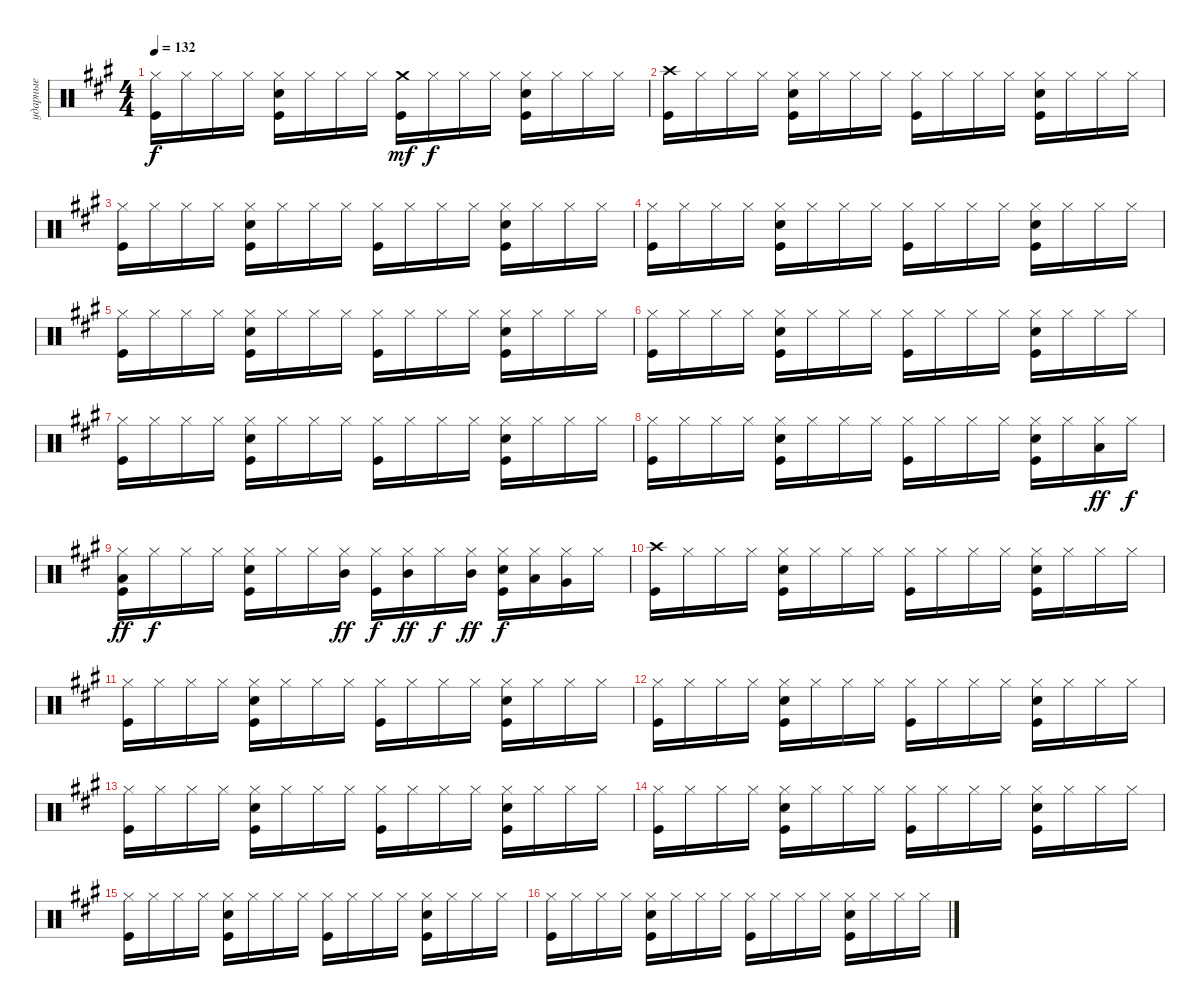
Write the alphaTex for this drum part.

\track ("ударные" "ударные") {instrument percussion}
\staff {score}
\articulation defaults
\ts (4 4)
\tempo 132
\clef neutral
\ks f#minor
("Hi-Hat (closed)" "Kick (hit)").16{dy f} "Hi-Hat (closed)".16 "Hi-Hat (closed)".16 "Hi-Hat (closed)".16 ("Hi-Hat (closed)" "Snare (hit) 2" "Kick (hit)").16 "Hi-Hat (closed)".16 "Hi-Hat (closed)".16 "Hi-Hat (closed)".16 ("Crash medium (hit)" "Kick (hit)").16{dy mf} "Hi-Hat (closed)".16{dy f} "Hi-Hat (closed)".16 "Hi-Hat (closed)".16 ("Hi-Hat (closed)" "Snare (hit) 2" "Kick (hit)").16 "Hi-Hat (closed)".16 "Hi-Hat (closed)".16 "Hi-Hat (closed)".16 |
("Kick (hit)" "Crash high (hit)").16 "Hi-Hat (closed)".16 "Hi-Hat (closed)".16 "Hi-Hat (closed)".16 ("Hi-Hat (closed)" "Snare (hit) 2" "Kick (hit)").16 "Hi-Hat (closed)".16 "Hi-Hat (closed)".16 "Hi-Hat (closed)".16 ("Hi-Hat (closed)" "Kick (hit)").16 "Hi-Hat (closed)".16 "Hi-Hat (closed)".16 "Hi-Hat (closed)".16 ("Hi-Hat (closed)" "Snare (hit) 2" "Kick (hit)").16 "Hi-Hat (closed)".16 "Hi-Hat (closed)".16 "Hi-Hat (closed)".16 |
("Hi-Hat (closed)" "Kick (hit)").16 "Hi-Hat (closed)".16 "Hi-Hat (closed)".16 "Hi-Hat (closed)".16 ("Hi-Hat (closed)" "Snare (hit) 2" "Kick (hit)").16 "Hi-Hat (closed)".16 "Hi-Hat (closed)".16 "Hi-Hat (closed)".16 ("Hi-Hat (closed)" "Kick (hit)").16 "Hi-Hat (closed)".16 "Hi-Hat (closed)".16 "Hi-Hat (closed)".16 ("Hi-Hat (closed)" "Snare (hit) 2" "Kick (hit)").16 "Hi-Hat (closed)".16 "Hi-Hat (closed)".16 "Hi-Hat (closed)".16 |
("Hi-Hat (closed)" "Kick (hit)").16 "Hi-Hat (closed)".16 "Hi-Hat (closed)".16 "Hi-Hat (closed)".16 ("Hi-Hat (closed)" "Snare (hit) 2" "Kick (hit)").16 "Hi-Hat (closed)".16 "Hi-Hat (closed)".16 "Hi-Hat (closed)".16 ("Hi-Hat (closed)" "Kick (hit)").16 "Hi-Hat (closed)".16 "Hi-Hat (closed)".16 "Hi-Hat (closed)".16 ("Hi-Hat (closed)" "Snare (hit) 2" "Kick (hit)").16 "Hi-Hat (closed)".16 "Hi-Hat (closed)".16 "Hi-Hat (closed)".16 |
("Hi-Hat (closed)" "Kick (hit)").16 "Hi-Hat (closed)".16 "Hi-Hat (closed)".16 "Hi-Hat (closed)".16 ("Hi-Hat (closed)" "Snare (hit) 2" "Kick (hit)").16 "Hi-Hat (closed)".16 "Hi-Hat (closed)".16 "Hi-Hat (closed)".16 ("Hi-Hat (closed)" "Kick (hit)").16 "Hi-Hat (closed)".16 "Hi-Hat (closed)".16 "Hi-Hat (closed)".16 ("Hi-Hat (closed)" "Snare (hit) 2" "Kick (hit)").16 "Hi-Hat (closed)".16 "Hi-Hat (closed)".16 "Hi-Hat (closed)".16 |
("Hi-Hat (closed)" "Kick (hit)").16 "Hi-Hat (closed)".16 "Hi-Hat (closed)".16 "Hi-Hat (closed)".16 ("Hi-Hat (closed)" "Snare (hit) 2" "Kick (hit)").16 "Hi-Hat (closed)".16 "Hi-Hat (closed)".16 "Hi-Hat (closed)".16 ("Hi-Hat (closed)" "Kick (hit)").16 "Hi-Hat (closed)".16 "Hi-Hat (closed)".16 "Hi-Hat (closed)".16 ("Hi-Hat (closed)" "Snare (hit) 2" "Kick (hit)").16 "Hi-Hat (closed)".16 "Hi-Hat (closed)".16 "Hi-Hat (closed)".16 |
("Hi-Hat (closed)" "Kick (hit)").16 "Hi-Hat (closed)".16 "Hi-Hat (closed)".16 "Hi-Hat (closed)".16 ("Hi-Hat (closed)" "Snare (hit) 2" "Kick (hit)").16 "Hi-Hat (closed)".16 "Hi-Hat (closed)".16 "Hi-Hat (closed)".16 ("Hi-Hat (closed)" "Kick (hit)").16 "Hi-Hat (closed)".16 "Hi-Hat (closed)".16 "Hi-Hat (closed)".16 ("Hi-Hat (closed)" "Snare (hit) 2" "Kick (hit)").16 "Hi-Hat (closed)".16 "Hi-Hat (closed)".16 "Hi-Hat (closed)".16 |
("Hi-Hat (closed)" "Kick (hit)").16 "Hi-Hat (closed)".16 "Hi-Hat (closed)".16 "Hi-Hat (closed)".16 ("Hi-Hat (closed)" "Snare (hit) 2" "Kick (hit)").16 "Hi-Hat (closed)".16 "Hi-Hat (closed)".16 "Hi-Hat (closed)".16 ("Hi-Hat (closed)" "Kick (hit)").16 "Hi-Hat (closed)".16 "Hi-Hat (closed)".16 "Hi-Hat (closed)".16 ("Hi-Hat (closed)" "Snare (hit) 2" "Kick (hit)").16 "Hi-Hat (closed)".16 ("Hi-Hat (closed)" "Low Floor Tom (hit)").16{dy ff} "Hi-Hat (closed)".16{dy f} |
("Hi-Hat (closed)" "Kick (hit)" "Low Floor Tom (hit)").16{dy ff} "Hi-Hat (closed)".16{dy f} "Hi-Hat (closed)".16 "Hi-Hat (closed)".16 ("Hi-Hat (closed)" "Snare (hit) 2" "Kick (hit)").16 "Hi-Hat (closed)".16 "Hi-Hat (closed)".16 ("Mid Tom (hit)" "Hi-Hat (closed)").16{dy ff} ("Hi-Hat (closed)" "Kick (hit)").16{dy f} ("Mid Tom (hit)" "Hi-Hat (closed)").16{dy ff} "Hi-Hat (closed)".16{dy f} ("Mid Tom (hit)" "Hi-Hat (closed)").16{dy ff} ("Hi-Hat (closed)" "Snare (hit) 2" "Kick (hit)").16{dy f} ("Hi-Hat (closed)" "Low Tom (hit)").16 ("Very Low Tom (hit)" "Hi-Hat (closed)").16 "Hi-Hat (closed)".16 |
("Kick (hit)" "Crash high (hit)").16 "Hi-Hat (closed)".16 "Hi-Hat (closed)".16 "Hi-Hat (closed)".16 ("Hi-Hat (closed)" "Snare (hit) 2" "Kick (hit)").16 "Hi-Hat (closed)".16 "Hi-Hat (closed)".16 "Hi-Hat (closed)".16 ("Hi-Hat (closed)" "Kick (hit)").16 "Hi-Hat (closed)".16 "Hi-Hat (closed)".16 "Hi-Hat (closed)".16 ("Hi-Hat (closed)" "Snare (hit) 2" "Kick (hit)").16 "Hi-Hat (closed)".16 "Hi-Hat (closed)".16 "Hi-Hat (closed)".16 |
("Kick (hit)" "Hi-Hat (closed)").16 "Hi-Hat (closed)".16 "Hi-Hat (closed)".16 "Hi-Hat (closed)".16 ("Hi-Hat (closed)" "Snare (hit) 2" "Kick (hit)").16 "Hi-Hat (closed)".16 "Hi-Hat (closed)".16 "Hi-Hat (closed)".16 ("Hi-Hat (closed)" "Kick (hit)").16 "Hi-Hat (closed)".16 "Hi-Hat (closed)".16 "Hi-Hat (closed)".16 ("Hi-Hat (closed)" "Snare (hit) 2" "Kick (hit)").16 "Hi-Hat (closed)".16 "Hi-Hat (closed)".16 "Hi-Hat (closed)".16 |
("Hi-Hat (closed)" "Kick (hit)").16 "Hi-Hat (closed)".16 "Hi-Hat (closed)".16 "Hi-Hat (closed)".16 ("Hi-Hat (closed)" "Snare (hit) 2" "Kick (hit)").16 "Hi-Hat (closed)".16 "Hi-Hat (closed)".16 "Hi-Hat (closed)".16 ("Hi-Hat (closed)" "Kick (hit)").16 "Hi-Hat (closed)".16 "Hi-Hat (closed)".16 "Hi-Hat (closed)".16 ("Hi-Hat (closed)" "Snare (hit) 2" "Kick (hit)").16 "Hi-Hat (closed)".16 "Hi-Hat (closed)".16 "Hi-Hat (closed)".16 |
("Hi-Hat (closed)" "Kick (hit)").16 "Hi-Hat (closed)".16 "Hi-Hat (closed)".16 "Hi-Hat (closed)".16 ("Hi-Hat (closed)" "Snare (hit) 2" "Kick (hit)").16 "Hi-Hat (closed)".16 "Hi-Hat (closed)".16 "Hi-Hat (closed)".16 ("Hi-Hat (closed)" "Kick (hit)").16 "Hi-Hat (closed)".16 "Hi-Hat (closed)".16 "Hi-Hat (closed)".16 ("Hi-Hat (closed)" "Snare (hit) 2" "Kick (hit)").16 "Hi-Hat (closed)".16 "Hi-Hat (closed)".16 "Hi-Hat (closed)".16 |
("Kick (hit)" "Hi-Hat (closed)").16 "Hi-Hat (closed)".16 "Hi-Hat (closed)".16 "Hi-Hat (closed)".16 ("Hi-Hat (closed)" "Snare (hit) 2" "Kick (hit)").16 "Hi-Hat (closed)".16 "Hi-Hat (closed)".16 "Hi-Hat (closed)".16 ("Hi-Hat (closed)" "Kick (hit)").16 "Hi-Hat (closed)".16 "Hi-Hat (closed)".16 "Hi-Hat (closed)".16 ("Hi-Hat (closed)" "Snare (hit) 2" "Kick (hit)").16 "Hi-Hat (closed)".16 "Hi-Hat (closed)".16 "Hi-Hat (closed)".16 |
("Hi-Hat (closed)" "Kick (hit)").16 "Hi-Hat (closed)".16 "Hi-Hat (closed)".16 "Hi-Hat (closed)".16 ("Hi-Hat (closed)" "Snare (hit) 2" "Kick (hit)").16 "Hi-Hat (closed)".16 "Hi-Hat (closed)".16 "Hi-Hat (closed)".16 ("Hi-Hat (closed)" "Kick (hit)").16 "Hi-Hat (closed)".16 "Hi-Hat (closed)".16 "Hi-Hat (closed)".16 ("Hi-Hat (closed)" "Snare (hit) 2" "Kick (hit)").16 "Hi-Hat (closed)".16 "Hi-Hat (closed)".16 "Hi-Hat (closed)".16 |
("Hi-Hat (closed)" "Kick (hit)").16 "Hi-Hat (closed)".16 "Hi-Hat (closed)".16 "Hi-Hat (closed)".16 ("Hi-Hat (closed)" "Snare (hit) 2" "Kick (hit)").16 "Hi-Hat (closed)".16 "Hi-Hat (closed)".16 "Hi-Hat (closed)".16 ("Hi-Hat (closed)" "Kick (hit)").16 "Hi-Hat (closed)".16 "Hi-Hat (closed)".16 "Hi-Hat (closed)".16 ("Hi-Hat (closed)" "Snare (hit) 2" "Kick (hit)").16 "Hi-Hat (closed)".16 "Hi-Hat (closed)".16 "Hi-Hat (closed)".16
